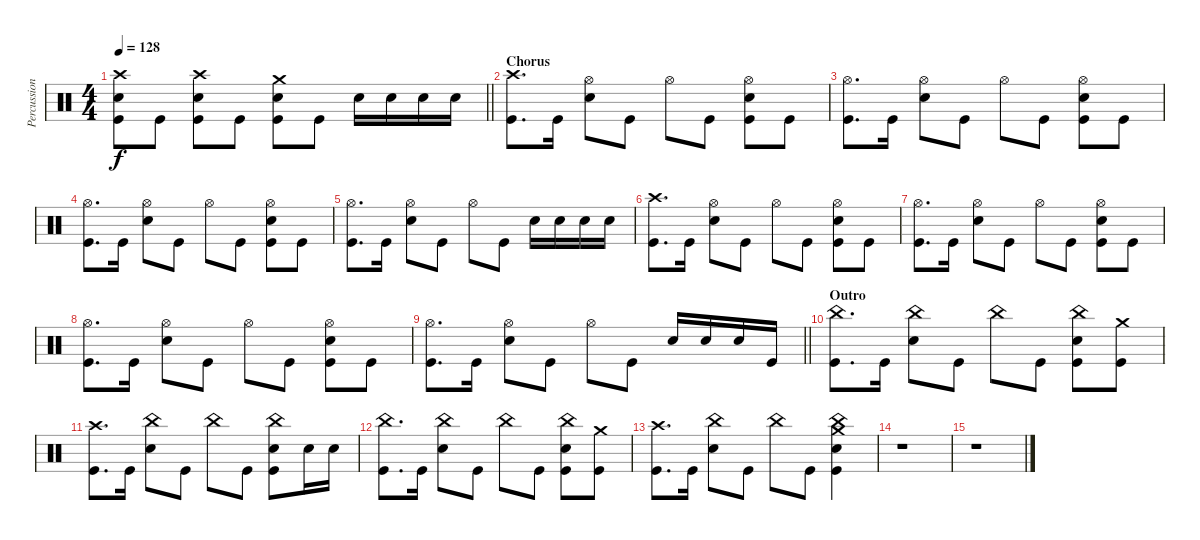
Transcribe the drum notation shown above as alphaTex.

\track ("Percussion" "Percussion") {instrument percussion}
\staff {score}
\articulation defaults
\ts (4 4)
\tempo 128
\clef neutral
\barLineRight lightlight
\ks c
("Crash high (hit)" "Electric Snare (hit)" "Kick (hit)").8{dy f} "Kick (hit)".8 ("Crash high (hit)" "Electric Snare (hit)" "Kick (hit)").8 "Kick (hit)".8 ("Crash medium (hit)" "Electric Snare (hit)" "Kick (hit)").8 "Kick (hit)".8 "Electric Snare (hit)".16 "Electric Snare (hit)".16 "Electric Snare (hit)".16 "Electric Snare (hit)".16 |
\section ("" "Chorus")
("Crash high (hit)" "Kick (hit)").8{d} "Kick (hit)".16 ("Hi-Hat (open)" "Electric Snare (hit)").8 "Kick (hit)".8 "Hi-Hat (open)".8 "Kick (hit)".8 ("Hi-Hat (open)" "Electric Snare (hit)" "Kick (hit)").8 "Kick (hit)".8 |
("Hi-Hat (open)" "Kick (hit)").8{d} "Kick (hit)".16 ("Hi-Hat (open)" "Electric Snare (hit)").8 "Kick (hit)".8 "Hi-Hat (open)".8 "Kick (hit)".8 ("Hi-Hat (open)" "Electric Snare (hit)" "Kick (hit)").8 "Kick (hit)".8 |
("Hi-Hat (open)" "Kick (hit)").8{d} "Kick (hit)".16 ("Hi-Hat (open)" "Electric Snare (hit)").8 "Kick (hit)".8 "Hi-Hat (open)".8 "Kick (hit)".8 ("Hi-Hat (open)" "Electric Snare (hit)" "Kick (hit)").8 "Kick (hit)".8 |
("Hi-Hat (open)" "Kick (hit)").8{d} "Kick (hit)".16 ("Hi-Hat (open)" "Electric Snare (hit)").8 "Kick (hit)".8 "Hi-Hat (open)".8 "Kick (hit)".8 "Electric Snare (hit)".16 "Electric Snare (hit)".16 "Electric Snare (hit)".16 "Electric Snare (hit)".16 |
("Crash high (hit)" "Kick (hit)").8{d} "Kick (hit)".16 ("Hi-Hat (open)" "Electric Snare (hit)").8 "Kick (hit)".8 "Hi-Hat (open)".8 "Kick (hit)".8 ("Hi-Hat (open)" "Electric Snare (hit)" "Kick (hit)").8 "Kick (hit)".8 |
("Hi-Hat (open)" "Kick (hit)").8{d} "Kick (hit)".16 ("Hi-Hat (open)" "Electric Snare (hit)").8 "Kick (hit)".8 "Hi-Hat (open)".8 "Kick (hit)".8 ("Hi-Hat (open)" "Electric Snare (hit)" "Kick (hit)").8 "Kick (hit)".8 |
("Hi-Hat (open)" "Kick (hit)").8{d} "Kick (hit)".16 ("Hi-Hat (open)" "Electric Snare (hit)").8 "Kick (hit)".8 "Hi-Hat (open)".8 "Kick (hit)".8 ("Hi-Hat (open)" "Electric Snare (hit)" "Kick (hit)").8 "Kick (hit)".8 |
\barLineRight lightlight
("Hi-Hat (open)" "Kick (hit)").8{d} "Kick (hit)".16 ("Hi-Hat (open)" "Electric Snare (hit)").8 "Kick (hit)".8 "Hi-Hat (open)".8 "Kick (hit)".8 "Electric Snare (hit)".16 "Electric Snare (hit)".16 "Electric Snare (hit)".16 "Kick (hit)".16 |
\section ("" "Outro")
("China (hit)" "Kick (hit)").8{d} "Kick (hit)".16 ("China (hit)" "Electric Snare (hit)").8 "Kick (hit)".8 "China (hit)".8 "Kick (hit)".8 ("China (hit)" "Electric Snare (hit)" "Kick (hit)").8 ("Crash medium (hit)" "Kick (hit)").8 |
("Crash high (hit)" "Kick (hit)").8{d} "Kick (hit)".16 ("China (hit)" "Electric Snare (hit)").8 "Kick (hit)".8 "China (hit)".8 "Kick (hit)".8 ("China (hit)" "Electric Snare (hit)" "Kick (hit)").8 "Electric Snare (hit)".16 "Electric Snare (hit)".16 |
("China (hit)" "Kick (hit)").8{d} "Kick (hit)".16 ("China (hit)" "Electric Snare (hit)").8 "Kick (hit)".8 "China (hit)".8 "Kick (hit)".8 ("China (hit)" "Electric Snare (hit)" "Kick (hit)").8 ("Crash medium (hit)" "Kick (hit)").8 |
("Crash high (hit)" "Kick (hit)").8{d} "Kick (hit)".16 ("China (hit)" "Electric Snare (hit)").8 "Kick (hit)".8 "China (hit)".8 "Kick (hit)".8 ("Crash medium (hit)" "China (hit)" "Electric Snare (hit)" "Kick (hit)").4 |
r.1 |
r.1
